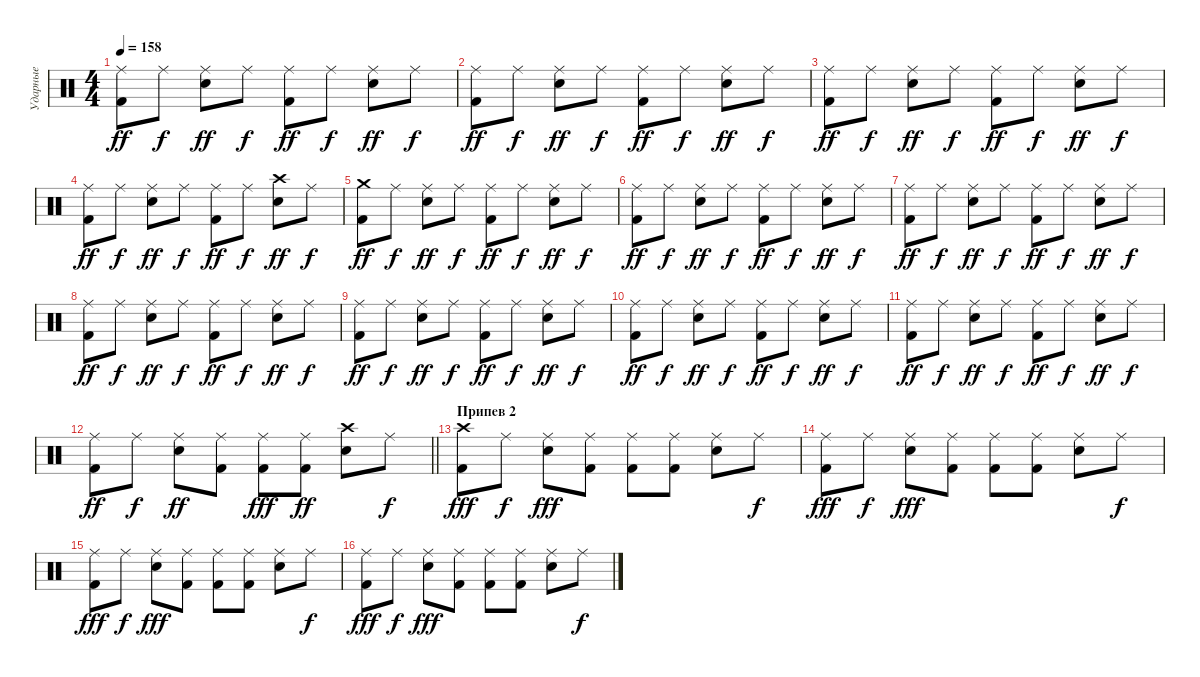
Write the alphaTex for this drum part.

\track ("Ударные" "Ударные") {instrument percussion}
\staff {score}
\articulation defaults
\ts (4 4)
\tempo 158
\clef neutral
\ks c
("Ride (middle)" "Kick (hit) 2").8{dy ff} "Ride (middle)".8{dy f} ("Ride (middle)" "Electric Snare (hit)").8{dy ff} "Ride (middle)".8{dy f} ("Ride (middle)" "Kick (hit) 2").8{dy ff} "Ride (middle)".8{dy f} ("Ride (middle)" "Electric Snare (hit)").8{dy ff} "Ride (middle)".8{dy f} |
("Ride (middle)" "Kick (hit) 2").8{dy ff} "Ride (middle)".8{dy f} ("Ride (middle)" "Electric Snare (hit)").8{dy ff} "Ride (middle)".8{dy f} ("Ride (middle)" "Kick (hit) 2").8{dy ff} "Ride (middle)".8{dy f} ("Ride (middle)" "Electric Snare (hit)").8{dy ff} "Ride (middle)".8{dy f} |
("Ride (middle)" "Kick (hit) 2").8{dy ff} "Ride (middle)".8{dy f} ("Ride (middle)" "Electric Snare (hit)").8{dy ff} "Ride (middle)".8{dy f} ("Ride (middle)" "Kick (hit) 2").8{dy ff} "Ride (middle)".8{dy f} ("Ride (middle)" "Electric Snare (hit)").8{dy ff} "Ride (middle)".8{dy f} |
("Ride (middle)" "Kick (hit) 2").8{dy ff} "Ride (middle)".8{dy f} ("Ride (middle)" "Electric Snare (hit)").8{dy ff} "Ride (middle)".8{dy f} ("Ride (middle)" "Kick (hit) 2").8{dy ff} "Ride (middle)".8{dy f} ("Crash high (hit)" "Electric Snare (hit)").8{dy ff} "Ride (middle)".8{dy f} |
("Crash medium (hit)" "Kick (hit) 2").8{dy ff} "Ride (middle)".8{dy f} ("Ride (middle)" "Electric Snare (hit)").8{dy ff} "Ride (middle)".8{dy f} ("Ride (middle)" "Kick (hit) 2").8{dy ff} "Ride (middle)".8{dy f} ("Ride (middle)" "Electric Snare (hit)").8{dy ff} "Ride (middle)".8{dy f} |
("Ride (middle)" "Kick (hit) 2").8{dy ff} "Ride (middle)".8{dy f} ("Ride (middle)" "Electric Snare (hit)").8{dy ff} "Ride (middle)".8{dy f} ("Ride (middle)" "Kick (hit) 2").8{dy ff} "Ride (middle)".8{dy f} ("Ride (middle)" "Electric Snare (hit)").8{dy ff} "Ride (middle)".8{dy f} |
("Ride (middle)" "Kick (hit) 2").8{dy ff} "Ride (middle)".8{dy f} ("Ride (middle)" "Electric Snare (hit)").8{dy ff} "Ride (middle)".8{dy f} ("Ride (middle)" "Kick (hit) 2").8{dy ff} "Ride (middle)".8{dy f} ("Ride (middle)" "Electric Snare (hit)").8{dy ff} "Ride (middle)".8{dy f} |
("Ride (middle)" "Kick (hit) 2").8{dy ff} "Ride (middle)".8{dy f} ("Ride (middle)" "Electric Snare (hit)").8{dy ff} "Ride (middle)".8{dy f} ("Ride (middle)" "Kick (hit) 2").8{dy ff} "Ride (middle)".8{dy f} ("Ride (middle)" "Electric Snare (hit)").8{dy ff} "Ride (middle)".8{dy f} |
("Ride (middle)" "Kick (hit) 2").8{dy ff} "Ride (middle)".8{dy f} ("Ride (middle)" "Electric Snare (hit)").8{dy ff} "Ride (middle)".8{dy f} ("Ride (middle)" "Kick (hit) 2").8{dy ff} "Ride (middle)".8{dy f} ("Ride (middle)" "Electric Snare (hit)").8{dy ff} "Ride (middle)".8{dy f} |
("Ride (middle)" "Kick (hit) 2").8{dy ff} "Ride (middle)".8{dy f} ("Ride (middle)" "Electric Snare (hit)").8{dy ff} "Ride (middle)".8{dy f} ("Ride (middle)" "Kick (hit) 2").8{dy ff} "Ride (middle)".8{dy f} ("Ride (middle)" "Electric Snare (hit)").8{dy ff} "Ride (middle)".8{dy f} |
("Ride (middle)" "Kick (hit) 2").8{dy ff} "Ride (middle)".8{dy f} ("Ride (middle)" "Electric Snare (hit)").8{dy ff} "Ride (middle)".8{dy f} ("Ride (middle)" "Kick (hit) 2").8{dy ff} "Ride (middle)".8{dy f} ("Ride (middle)" "Electric Snare (hit)").8{dy ff} "Ride (middle)".8{dy f} |
\barLineRight lightlight
("Ride (middle)" "Kick (hit) 2").8{dy ff} "Ride (middle)".8{dy f} ("Ride (middle)" "Electric Snare (hit)").8{dy ff} ("Ride (middle)" "Kick (hit) 2").8 ("Ride (middle)" "Kick (hit) 2").8{dy fff} ("Ride (middle)" "Kick (hit) 2").8{dy ff} ("Crash high (hit)" "Snare (hit) 2").8 "Ride (middle)".8{dy f} |
\section ("" "Припев 2")
("Crash high (hit)" "Kick (hit) 2").8{dy fff} "Ride (middle)".8{dy f} ("Ride (middle)" "Electric Snare (hit)").8{dy fff} ("Ride (middle)" "Kick (hit) 2").8 ("Ride (middle)" "Kick (hit) 2").8 ("Ride (middle)" "Kick (hit) 2").8 ("Ride (middle)" "Snare (hit) 2").8 "Ride (middle)".8{dy f} |
("Ride (middle)" "Kick (hit) 2").8{dy fff} "Ride (middle)".8{dy f} ("Ride (middle)" "Electric Snare (hit)").8{dy fff} ("Ride (middle)" "Kick (hit) 2").8 ("Ride (middle)" "Kick (hit) 2").8 ("Ride (middle)" "Kick (hit) 2").8 ("Ride (middle)" "Snare (hit) 2").8 "Ride (middle)".8{dy f} |
("Ride (middle)" "Kick (hit) 2").8{dy fff} "Ride (middle)".8{dy f} ("Ride (middle)" "Electric Snare (hit)").8{dy fff} ("Ride (middle)" "Kick (hit) 2").8 ("Ride (middle)" "Kick (hit) 2").8 ("Ride (middle)" "Kick (hit) 2").8 ("Ride (middle)" "Snare (hit) 2").8 "Ride (middle)".8{dy f} |
("Ride (middle)" "Kick (hit) 2").8{dy fff} "Ride (middle)".8{dy f} ("Ride (middle)" "Electric Snare (hit)").8{dy fff} ("Ride (middle)" "Kick (hit) 2").8 ("Ride (middle)" "Kick (hit) 2").8 ("Ride (middle)" "Kick (hit) 2").8 ("Ride (middle)" "Snare (hit) 2").8 "Ride (middle)".8{dy f}
